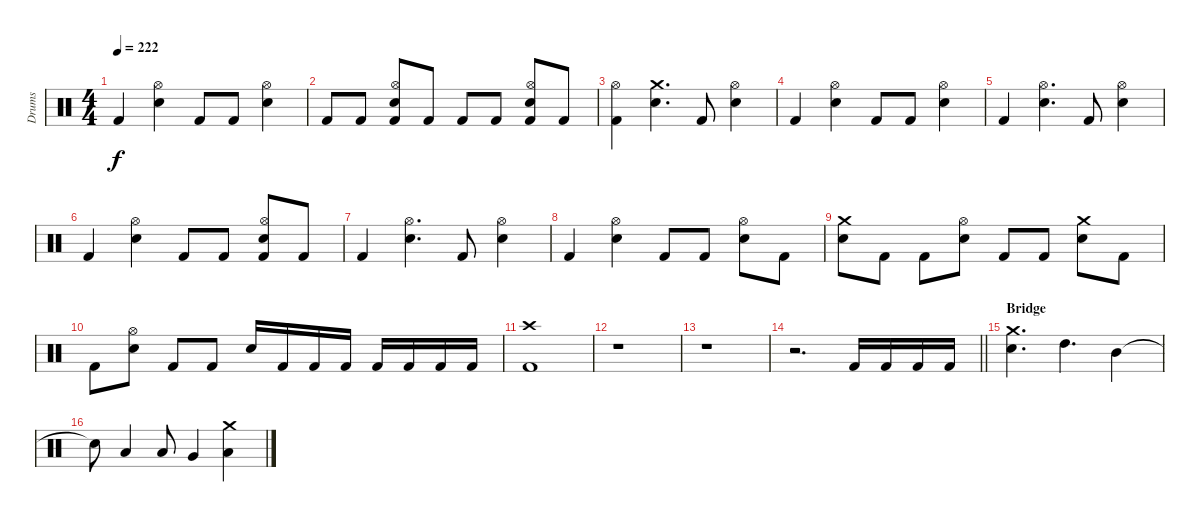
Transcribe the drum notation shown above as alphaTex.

\track ("Drums" "Drums") {instrument percussion}
\staff {score}
\articulation defaults
\ts (4 4)
\tempo 222
\clef neutral
\ks c "Kick (hit) 2".4{dy f}
("Hi-Hat (open)" "Snare (hit) 2").4 "Kick (hit) 2".8 "Kick (hit) 2".8 ("Hi-Hat (open)" "Snare (hit) 2").4 |
"Kick (hit) 2".8 "Kick (hit) 2".8 ("Hi-Hat (open)" "Snare (hit) 2" "Kick (hit) 2").8 "Kick (hit) 2".8 "Kick (hit) 2".8 "Kick (hit) 2".8 ("Hi-Hat (open)" "Snare (hit) 2" "Kick (hit) 2").8 "Kick (hit) 2".8 |
("Hi-Hat (open)" "Kick (hit) 2").4 ("Crash medium (hit)" "Snare (hit) 2").4{d} "Kick (hit) 2".8 ("Hi-Hat (open)" "Snare (hit) 2").4 |
"Kick (hit) 2".4 ("Hi-Hat (open)" "Snare (hit) 2").4 "Kick (hit) 2".8 "Kick (hit) 2".8 ("Hi-Hat (open)" "Snare (hit) 2").4 |
"Kick (hit) 2".4 ("Hi-Hat (open)" "Snare (hit) 2").4{d} "Kick (hit) 2".8 ("Hi-Hat (open)" "Snare (hit) 2").4 |
"Kick (hit) 2".4 ("Hi-Hat (open)" "Snare (hit) 2").4 "Kick (hit) 2".8 "Kick (hit) 2".8 ("Hi-Hat (open)" "Snare (hit) 2" "Kick (hit) 2").8 "Kick (hit) 2".8 |
"Kick (hit) 2".4 ("Hi-Hat (open)" "Snare (hit) 2").4{d} "Kick (hit) 2".8 ("Hi-Hat (open)" "Snare (hit) 2").4 |
"Kick (hit) 2".4 ("Hi-Hat (open)" "Snare (hit) 2").4 "Kick (hit) 2".8 "Kick (hit) 2".8 ("Hi-Hat (open)" "Snare (hit) 2").8 "Kick (hit) 2".8 |
("Crash medium (hit)" "Snare (hit) 2").8 "Kick (hit) 2".8 "Kick (hit) 2".8 ("Hi-Hat (open)" "Snare (hit) 2").8 "Kick (hit) 2".8 "Kick (hit) 2".8 ("Crash medium (hit)" "Snare (hit) 2").8 "Kick (hit) 2".8 |
"Kick (hit) 2".8 ("Hi-Hat (open)" "Snare (hit) 2").8 "Kick (hit) 2".8 "Kick (hit) 2".8 "Snare (hit) 2".16 "Kick (hit) 2".16 "Kick (hit) 2".16 "Kick (hit) 2".16 "Kick (hit) 2".16 "Kick (hit) 2".16 "Kick (hit) 2".16 "Kick (hit) 2".16 |
("Crash high (hit)" "Kick (hit) 2").1 |
r.1 |
r.1 |
\barLineRight lightlight
r.2{d} "Kick (hit) 2".16 "Kick (hit) 2".16 "Kick (hit) 2".16 "Kick (hit) 2".16 |
\section ("" "Bridge")
("Crash medium (hit)" "Snare (hit) 2").4{d} "High Tom (hit)".4{d} "Mid Tom (hit)".4 |
"Snare (hit)"{t}.8 "Low Tom (hit)".4 "Low Tom (hit)".8 "Very Low Tom (hit)".4 ("Crash medium (hit)" "Low Floor Tom (hit)").4
